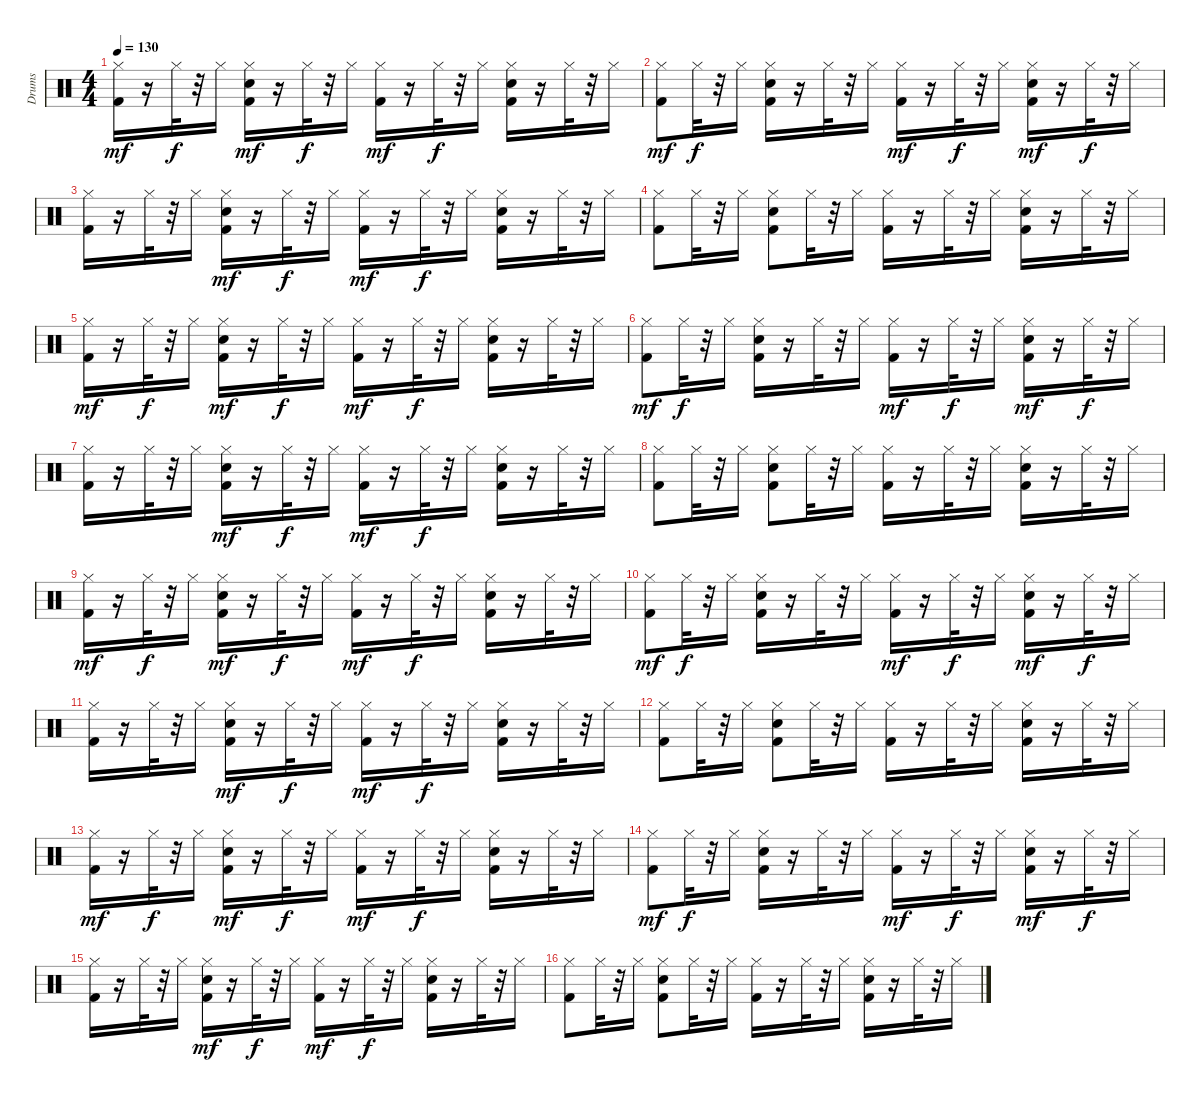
\track ("Drums" "Drums") {instrument percussion}
\staff {score}
\articulation defaults
\ts (4 4)
\tempo 130
\clef neutral
\ks c
("Kick (hit) 2" "Hi-Hat (closed)").16{dy mf} r.16 "Hi-Hat (closed)".32{dy f} r.32 "Hi-Hat (closed)".16 ("Snare (hit) 2" "Kick (hit) 2" "Hi-Hat (closed)").16{dy mf} r.16 "Hi-Hat (closed)".32{dy f} r.32 "Hi-Hat (closed)".16 ("Kick (hit) 2" "Hi-Hat (closed)").16{dy mf} r.16 "Hi-Hat (closed)".32{dy f} r.32 "Hi-Hat (closed)".16 ("Snare (hit) 2" "Kick (hit) 2" "Hi-Hat (closed)").16 r.16 "Hi-Hat (closed)".32 r.32 "Hi-Hat (closed)".16 |
("Kick (hit) 2" "Hi-Hat (closed)").8{dy mf} "Hi-Hat (closed)".32{dy f} r.32 "Hi-Hat (closed)".16 ("Snare (hit) 2" "Kick (hit) 2" "Hi-Hat (closed)").16 r.16 "Hi-Hat (closed)".32 r.32 "Hi-Hat (closed)".16 ("Kick (hit) 2" "Hi-Hat (closed)").16{dy mf} r.16 "Hi-Hat (closed)".32{dy f} r.32 "Hi-Hat (closed)".16 ("Snare (hit) 2" "Kick (hit) 2" "Hi-Hat (closed)").16{dy mf} r.16 "Hi-Hat (closed)".32{dy f} r.32 "Hi-Hat (closed)".16 |
("Kick (hit) 2" "Hi-Hat (closed)").16 r.16 "Hi-Hat (closed)".32 r.32 "Hi-Hat (closed)".16 ("Kick (hit) 2" "Snare (hit) 2" "Hi-Hat (closed)").16{dy mf} r.16 "Hi-Hat (closed)".32{dy f} r.32 "Hi-Hat (closed)".16 ("Kick (hit) 2" "Hi-Hat (closed)").16{dy mf} r.16 "Hi-Hat (closed)".32{dy f} r.32 "Hi-Hat (closed)".16 ("Snare (hit) 2" "Kick (hit) 2" "Hi-Hat (closed)").16 r.16 "Hi-Hat (closed)".32 r.32 "Hi-Hat (closed)".16 |
("Hi-Hat (closed)" "Kick (hit) 2").8 "Hi-Hat (closed)".32 r.32 "Hi-Hat (closed)".16 ("Hi-Hat (closed)" "Kick (hit) 2" "Snare (hit) 2").8 "Hi-Hat (closed)".32 r.32 "Hi-Hat (closed)".16 ("Hi-Hat (closed)" "Kick (hit) 2").16 r.16 "Hi-Hat (closed)".32 r.32 "Hi-Hat (closed)".16 ("Hi-Hat (closed)" "Snare (hit) 2" "Kick (hit) 2").16 r.16 "Hi-Hat (closed)".32 r.32 "Hi-Hat (closed)".16 |
("Kick (hit) 2" "Hi-Hat (closed)").16{dy mf} r.16 "Hi-Hat (closed)".32{dy f} r.32 "Hi-Hat (closed)".16 ("Snare (hit) 2" "Kick (hit) 2" "Hi-Hat (closed)").16{dy mf} r.16 "Hi-Hat (closed)".32{dy f} r.32 "Hi-Hat (closed)".16 ("Kick (hit) 2" "Hi-Hat (closed)").16{dy mf} r.16 "Hi-Hat (closed)".32{dy f} r.32 "Hi-Hat (closed)".16 ("Snare (hit) 2" "Kick (hit) 2" "Hi-Hat (closed)").16 r.16 "Hi-Hat (closed)".32 r.32 "Hi-Hat (closed)".16 |
("Kick (hit) 2" "Hi-Hat (closed)").8{dy mf} "Hi-Hat (closed)".32{dy f} r.32 "Hi-Hat (closed)".16 ("Snare (hit) 2" "Kick (hit) 2" "Hi-Hat (closed)").16 r.16 "Hi-Hat (closed)".32 r.32 "Hi-Hat (closed)".16 ("Kick (hit) 2" "Hi-Hat (closed)").16{dy mf} r.16 "Hi-Hat (closed)".32{dy f} r.32 "Hi-Hat (closed)".16 ("Snare (hit) 2" "Kick (hit) 2" "Hi-Hat (closed)").16{dy mf} r.16 "Hi-Hat (closed)".32{dy f} r.32 "Hi-Hat (closed)".16 |
("Kick (hit) 2" "Hi-Hat (closed)").16 r.16 "Hi-Hat (closed)".32 r.32 "Hi-Hat (closed)".16 ("Kick (hit) 2" "Snare (hit) 2" "Hi-Hat (closed)").16{dy mf} r.16 "Hi-Hat (closed)".32{dy f} r.32 "Hi-Hat (closed)".16 ("Kick (hit) 2" "Hi-Hat (closed)").16{dy mf} r.16 "Hi-Hat (closed)".32{dy f} r.32 "Hi-Hat (closed)".16 ("Snare (hit) 2" "Kick (hit) 2" "Hi-Hat (closed)").16 r.16 "Hi-Hat (closed)".32 r.32 "Hi-Hat (closed)".16 |
("Hi-Hat (closed)" "Kick (hit) 2").8 "Hi-Hat (closed)".32 r.32 "Hi-Hat (closed)".16 ("Hi-Hat (closed)" "Kick (hit) 2" "Snare (hit) 2").8 "Hi-Hat (closed)".32 r.32 "Hi-Hat (closed)".16 ("Hi-Hat (closed)" "Kick (hit) 2").16 r.16 "Hi-Hat (closed)".32 r.32 "Hi-Hat (closed)".16 ("Hi-Hat (closed)" "Snare (hit) 2" "Kick (hit) 2").16 r.16 "Hi-Hat (closed)".32 r.32 "Hi-Hat (closed)".16 |
("Kick (hit) 2" "Hi-Hat (closed)").16{dy mf} r.16 "Hi-Hat (closed)".32{dy f} r.32 "Hi-Hat (closed)".16 ("Snare (hit) 2" "Kick (hit) 2" "Hi-Hat (closed)").16{dy mf} r.16 "Hi-Hat (closed)".32{dy f} r.32 "Hi-Hat (closed)".16 ("Kick (hit) 2" "Hi-Hat (closed)").16{dy mf} r.16 "Hi-Hat (closed)".32{dy f} r.32 "Hi-Hat (closed)".16 ("Snare (hit) 2" "Kick (hit) 2" "Hi-Hat (closed)").16 r.16 "Hi-Hat (closed)".32 r.32 "Hi-Hat (closed)".16 |
("Kick (hit) 2" "Hi-Hat (closed)").8{dy mf} "Hi-Hat (closed)".32{dy f} r.32 "Hi-Hat (closed)".16 ("Snare (hit) 2" "Kick (hit) 2" "Hi-Hat (closed)").16 r.16 "Hi-Hat (closed)".32 r.32 "Hi-Hat (closed)".16 ("Kick (hit) 2" "Hi-Hat (closed)").16{dy mf} r.16 "Hi-Hat (closed)".32{dy f} r.32 "Hi-Hat (closed)".16 ("Snare (hit) 2" "Kick (hit) 2" "Hi-Hat (closed)").16{dy mf} r.16 "Hi-Hat (closed)".32{dy f} r.32 "Hi-Hat (closed)".16 |
("Kick (hit) 2" "Hi-Hat (closed)").16 r.16 "Hi-Hat (closed)".32 r.32 "Hi-Hat (closed)".16 ("Kick (hit) 2" "Snare (hit) 2" "Hi-Hat (closed)").16{dy mf} r.16 "Hi-Hat (closed)".32{dy f} r.32 "Hi-Hat (closed)".16 ("Kick (hit) 2" "Hi-Hat (closed)").16{dy mf} r.16 "Hi-Hat (closed)".32{dy f} r.32 "Hi-Hat (closed)".16 ("Snare (hit) 2" "Kick (hit) 2" "Hi-Hat (closed)").16 r.16 "Hi-Hat (closed)".32 r.32 "Hi-Hat (closed)".16 |
("Hi-Hat (closed)" "Kick (hit) 2").8 "Hi-Hat (closed)".32 r.32 "Hi-Hat (closed)".16 ("Hi-Hat (closed)" "Kick (hit) 2" "Snare (hit) 2").8 "Hi-Hat (closed)".32 r.32 "Hi-Hat (closed)".16 ("Hi-Hat (closed)" "Kick (hit) 2").16 r.16 "Hi-Hat (closed)".32 r.32 "Hi-Hat (closed)".16 ("Hi-Hat (closed)" "Snare (hit) 2" "Kick (hit) 2").16 r.16 "Hi-Hat (closed)".32 r.32 "Hi-Hat (closed)".16 |
("Kick (hit) 2" "Hi-Hat (closed)").16{dy mf} r.16 "Hi-Hat (closed)".32{dy f} r.32 "Hi-Hat (closed)".16 ("Snare (hit) 2" "Kick (hit) 2" "Hi-Hat (closed)").16{dy mf} r.16 "Hi-Hat (closed)".32{dy f} r.32 "Hi-Hat (closed)".16 ("Kick (hit) 2" "Hi-Hat (closed)").16{dy mf} r.16 "Hi-Hat (closed)".32{dy f} r.32 "Hi-Hat (closed)".16 ("Snare (hit) 2" "Kick (hit) 2" "Hi-Hat (closed)").16 r.16 "Hi-Hat (closed)".32 r.32 "Hi-Hat (closed)".16 |
("Kick (hit) 2" "Hi-Hat (closed)").8{dy mf} "Hi-Hat (closed)".32{dy f} r.32 "Hi-Hat (closed)".16 ("Snare (hit) 2" "Kick (hit) 2" "Hi-Hat (closed)").16 r.16 "Hi-Hat (closed)".32 r.32 "Hi-Hat (closed)".16 ("Kick (hit) 2" "Hi-Hat (closed)").16{dy mf} r.16 "Hi-Hat (closed)".32{dy f} r.32 "Hi-Hat (closed)".16 ("Snare (hit) 2" "Kick (hit) 2" "Hi-Hat (closed)").16{dy mf} r.16 "Hi-Hat (closed)".32{dy f} r.32 "Hi-Hat (closed)".16 |
("Kick (hit) 2" "Hi-Hat (closed)").16 r.16 "Hi-Hat (closed)".32 r.32 "Hi-Hat (closed)".16 ("Kick (hit) 2" "Snare (hit) 2" "Hi-Hat (closed)").16{dy mf} r.16 "Hi-Hat (closed)".32{dy f} r.32 "Hi-Hat (closed)".16 ("Kick (hit) 2" "Hi-Hat (closed)").16{dy mf} r.16 "Hi-Hat (closed)".32{dy f} r.32 "Hi-Hat (closed)".16 ("Snare (hit) 2" "Kick (hit) 2" "Hi-Hat (closed)").16 r.16 "Hi-Hat (closed)".32 r.32 "Hi-Hat (closed)".16 |
("Hi-Hat (closed)" "Kick (hit) 2").8 "Hi-Hat (closed)".32 r.32 "Hi-Hat (closed)".16 ("Hi-Hat (closed)" "Kick (hit) 2" "Snare (hit) 2").8 "Hi-Hat (closed)".32 r.32 "Hi-Hat (closed)".16 ("Hi-Hat (closed)" "Kick (hit) 2").16 r.16 "Hi-Hat (closed)".32 r.32 "Hi-Hat (closed)".16 ("Hi-Hat (closed)" "Snare (hit) 2" "Kick (hit) 2").16 r.16 "Hi-Hat (closed)".32 r.32 "Hi-Hat (closed)".16
